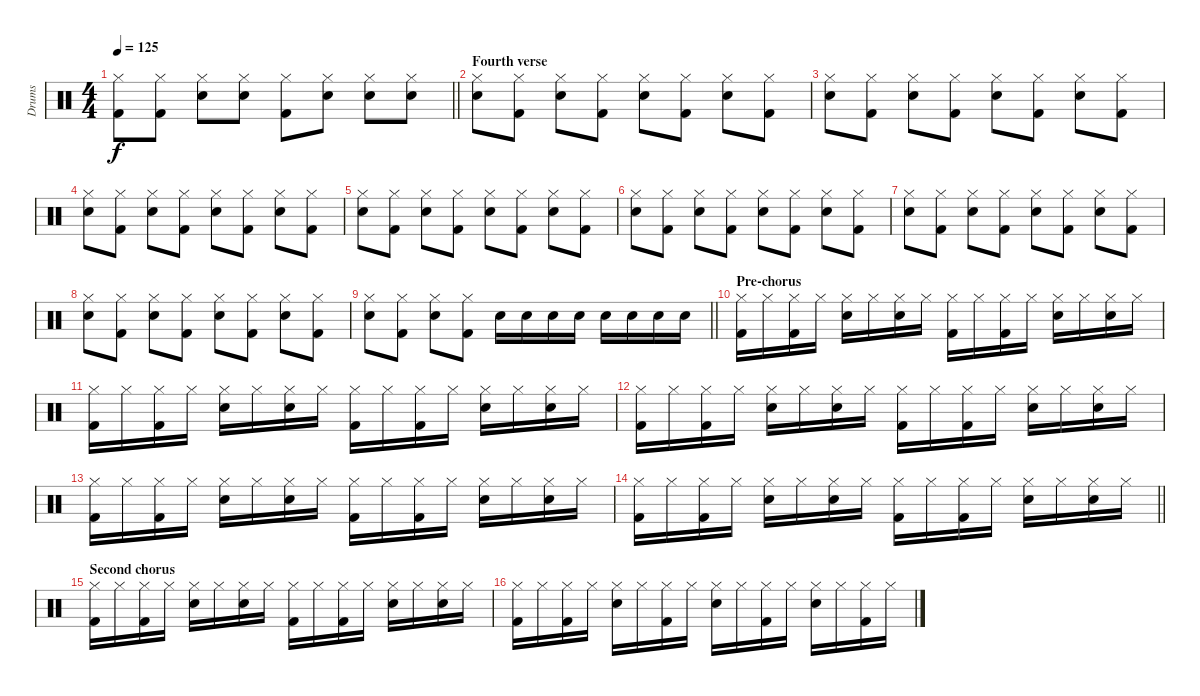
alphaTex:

\track ("Drums" "Drums") {instrument percussion}
\staff {score}
\articulation defaults
\ts (4 4)
\tempo 125
\clef neutral
\barLineRight lightlight
\ks c
("Hi-Hat (closed)" "Kick (hit) 2").8{dy f} ("Hi-Hat (closed)" "Kick (hit) 2").8 ("Hi-Hat (closed)" "Electric Snare (hit)").8 ("Hi-Hat (closed)" "Electric Snare (hit)").8 ("Hi-Hat (closed)" "Kick (hit) 2").8 ("Hi-Hat (closed)" "Electric Snare (hit)").8 ("Hi-Hat (closed)" "Electric Snare (hit)").8 ("Hi-Hat (closed)" "Electric Snare (hit)").8 |
\section ("" "Fourth verse")
("Hi-Hat (closed)" "Electric Snare (hit)").8 ("Hi-Hat (closed)" "Kick (hit) 2").8 ("Hi-Hat (closed)" "Electric Snare (hit)").8 ("Hi-Hat (closed)" "Kick (hit) 2").8 ("Hi-Hat (closed)" "Electric Snare (hit)").8 ("Hi-Hat (closed)" "Kick (hit) 2").8 ("Hi-Hat (closed)" "Electric Snare (hit)").8 ("Hi-Hat (closed)" "Kick (hit) 2").8 |
("Hi-Hat (closed)" "Electric Snare (hit)").8 ("Hi-Hat (closed)" "Kick (hit) 2").8 ("Hi-Hat (closed)" "Electric Snare (hit)").8 ("Hi-Hat (closed)" "Kick (hit) 2").8 ("Hi-Hat (closed)" "Electric Snare (hit)").8 ("Hi-Hat (closed)" "Kick (hit) 2").8 ("Hi-Hat (closed)" "Electric Snare (hit)").8 ("Hi-Hat (closed)" "Kick (hit) 2").8 |
("Hi-Hat (closed)" "Electric Snare (hit)").8 ("Hi-Hat (closed)" "Kick (hit) 2").8 ("Hi-Hat (closed)" "Electric Snare (hit)").8 ("Hi-Hat (closed)" "Kick (hit) 2").8 ("Hi-Hat (closed)" "Electric Snare (hit)").8 ("Hi-Hat (closed)" "Kick (hit) 2").8 ("Hi-Hat (closed)" "Electric Snare (hit)").8 ("Hi-Hat (closed)" "Kick (hit) 2").8 |
("Hi-Hat (closed)" "Electric Snare (hit)").8 ("Hi-Hat (closed)" "Kick (hit) 2").8 ("Hi-Hat (closed)" "Electric Snare (hit)").8 ("Hi-Hat (closed)" "Kick (hit) 2").8 ("Hi-Hat (closed)" "Electric Snare (hit)").8 ("Hi-Hat (closed)" "Kick (hit) 2").8 ("Hi-Hat (closed)" "Electric Snare (hit)").8 ("Hi-Hat (closed)" "Kick (hit) 2").8 |
("Hi-Hat (closed)" "Electric Snare (hit)").8 ("Hi-Hat (closed)" "Kick (hit) 2").8 ("Hi-Hat (closed)" "Electric Snare (hit)").8 ("Hi-Hat (closed)" "Kick (hit) 2").8 ("Hi-Hat (closed)" "Electric Snare (hit)").8 ("Hi-Hat (closed)" "Kick (hit) 2").8 ("Hi-Hat (closed)" "Electric Snare (hit)").8 ("Hi-Hat (closed)" "Kick (hit) 2").8 |
("Hi-Hat (closed)" "Electric Snare (hit)").8 ("Hi-Hat (closed)" "Kick (hit) 2").8 ("Hi-Hat (closed)" "Electric Snare (hit)").8 ("Hi-Hat (closed)" "Kick (hit) 2").8 ("Hi-Hat (closed)" "Electric Snare (hit)").8 ("Hi-Hat (closed)" "Kick (hit) 2").8 ("Hi-Hat (closed)" "Electric Snare (hit)").8 ("Hi-Hat (closed)" "Kick (hit) 2").8 |
("Hi-Hat (closed)" "Electric Snare (hit)").8 ("Hi-Hat (closed)" "Kick (hit) 2").8 ("Hi-Hat (closed)" "Electric Snare (hit)").8 ("Hi-Hat (closed)" "Kick (hit) 2").8 ("Hi-Hat (closed)" "Electric Snare (hit)").8 ("Hi-Hat (closed)" "Kick (hit) 2").8 ("Hi-Hat (closed)" "Electric Snare (hit)").8 ("Hi-Hat (closed)" "Kick (hit) 2").8 |
\barLineRight lightlight
("Hi-Hat (closed)" "Electric Snare (hit)").8 ("Hi-Hat (closed)" "Kick (hit) 2").8 ("Hi-Hat (closed)" "Electric Snare (hit)").8 ("Hi-Hat (closed)" "Kick (hit) 2").8 "Electric Snare (hit)".16 "Electric Snare (hit)".16 "Electric Snare (hit)".16 "Electric Snare (hit)".16 "Electric Snare (hit)".16 "Electric Snare (hit)".16 "Electric Snare (hit)".16 "Electric Snare (hit)".16 |
\section ("" "Pre-chorus")
("Hi-Hat (closed)" "Kick (hit) 2").16 "Hi-Hat (closed)".16 ("Hi-Hat (closed)" "Kick (hit) 2").16 "Hi-Hat (closed)".16 ("Hi-Hat (closed)" "Electric Snare (hit)").16 "Hi-Hat (closed)".16 ("Hi-Hat (closed)" "Electric Snare (hit)").16 "Hi-Hat (closed)".16 ("Hi-Hat (closed)" "Kick (hit) 2").16 "Hi-Hat (closed)".16 ("Hi-Hat (closed)" "Kick (hit) 2").16 "Hi-Hat (closed)".16 ("Hi-Hat (closed)" "Electric Snare (hit)").16 "Hi-Hat (closed)".16 ("Hi-Hat (closed)" "Electric Snare (hit)").16 "Hi-Hat (closed)".16 |
("Hi-Hat (closed)" "Kick (hit) 2").16 "Hi-Hat (closed)".16 ("Hi-Hat (closed)" "Kick (hit) 2").16 "Hi-Hat (closed)".16 ("Hi-Hat (closed)" "Electric Snare (hit)").16 "Hi-Hat (closed)".16 ("Hi-Hat (closed)" "Electric Snare (hit)").16 "Hi-Hat (closed)".16 ("Hi-Hat (closed)" "Kick (hit) 2").16 "Hi-Hat (closed)".16 ("Hi-Hat (closed)" "Kick (hit) 2").16 "Hi-Hat (closed)".16 ("Hi-Hat (closed)" "Electric Snare (hit)").16 "Hi-Hat (closed)".16 ("Hi-Hat (closed)" "Electric Snare (hit)").16 "Hi-Hat (closed)".16 |
("Hi-Hat (closed)" "Kick (hit) 2").16 "Hi-Hat (closed)".16 ("Hi-Hat (closed)" "Kick (hit) 2").16 "Hi-Hat (closed)".16 ("Hi-Hat (closed)" "Electric Snare (hit)").16 "Hi-Hat (closed)".16 ("Hi-Hat (closed)" "Electric Snare (hit)").16 "Hi-Hat (closed)".16 ("Hi-Hat (closed)" "Kick (hit) 2").16 "Hi-Hat (closed)".16 ("Hi-Hat (closed)" "Kick (hit) 2").16 "Hi-Hat (closed)".16 ("Hi-Hat (closed)" "Electric Snare (hit)").16 "Hi-Hat (closed)".16 ("Hi-Hat (closed)" "Electric Snare (hit)").16 "Hi-Hat (closed)".16 |
("Hi-Hat (closed)" "Kick (hit) 2").16 "Hi-Hat (closed)".16 ("Hi-Hat (closed)" "Kick (hit) 2").16 "Hi-Hat (closed)".16 ("Hi-Hat (closed)" "Electric Snare (hit)").16 "Hi-Hat (closed)".16 ("Hi-Hat (closed)" "Electric Snare (hit)").16 "Hi-Hat (closed)".16 ("Hi-Hat (closed)" "Kick (hit) 2").16 "Hi-Hat (closed)".16 ("Hi-Hat (closed)" "Kick (hit) 2").16 "Hi-Hat (closed)".16 ("Hi-Hat (closed)" "Electric Snare (hit)").16 "Hi-Hat (closed)".16 ("Hi-Hat (closed)" "Electric Snare (hit)").16 "Hi-Hat (closed)".16 |
\barLineRight lightlight
("Hi-Hat (closed)" "Kick (hit) 2").16 "Hi-Hat (closed)".16 ("Hi-Hat (closed)" "Kick (hit) 2").16 "Hi-Hat (closed)".16 ("Hi-Hat (closed)" "Electric Snare (hit)").16 "Hi-Hat (closed)".16 ("Hi-Hat (closed)" "Electric Snare (hit)").16 "Hi-Hat (closed)".16 ("Hi-Hat (closed)" "Kick (hit) 2").16 "Hi-Hat (closed)".16 ("Hi-Hat (closed)" "Kick (hit) 2").16 "Hi-Hat (closed)".16 ("Hi-Hat (closed)" "Electric Snare (hit)").16 "Hi-Hat (closed)".16 ("Hi-Hat (closed)" "Electric Snare (hit)").16 "Hi-Hat (closed)".16 |
\section ("" "Second chorus")
("Hi-Hat (closed)" "Kick (hit) 2").16 "Hi-Hat (closed)".16 ("Hi-Hat (closed)" "Kick (hit) 2").16 "Hi-Hat (closed)".16 ("Hi-Hat (closed)" "Electric Snare (hit)").16 "Hi-Hat (closed)".16 ("Hi-Hat (closed)" "Electric Snare (hit)").16 "Hi-Hat (closed)".16 ("Hi-Hat (closed)" "Kick (hit) 2").16 "Hi-Hat (closed)".16 ("Hi-Hat (closed)" "Kick (hit) 2").16 "Hi-Hat (closed)".16 ("Hi-Hat (closed)" "Electric Snare (hit)").16 "Hi-Hat (closed)".16 ("Hi-Hat (closed)" "Electric Snare (hit)").16 "Hi-Hat (closed)".16 |
("Hi-Hat (closed)" "Kick (hit) 2").16 "Hi-Hat (closed)".16 ("Hi-Hat (closed)" "Kick (hit) 2").16 "Hi-Hat (closed)".16 ("Hi-Hat (closed)" "Electric Snare (hit)").16 "Hi-Hat (closed)".16 ("Hi-Hat (closed)" "Kick (hit) 2").16 "Hi-Hat (closed)".16 ("Hi-Hat (closed)" "Electric Snare (hit)").16 "Hi-Hat (closed)".16 ("Hi-Hat (closed)" "Kick (hit) 2").16 "Hi-Hat (closed)".16 ("Hi-Hat (closed)" "Electric Snare (hit)").16 "Hi-Hat (closed)".16 ("Hi-Hat (closed)" "Kick (hit) 2").16 "Hi-Hat (closed)".16
